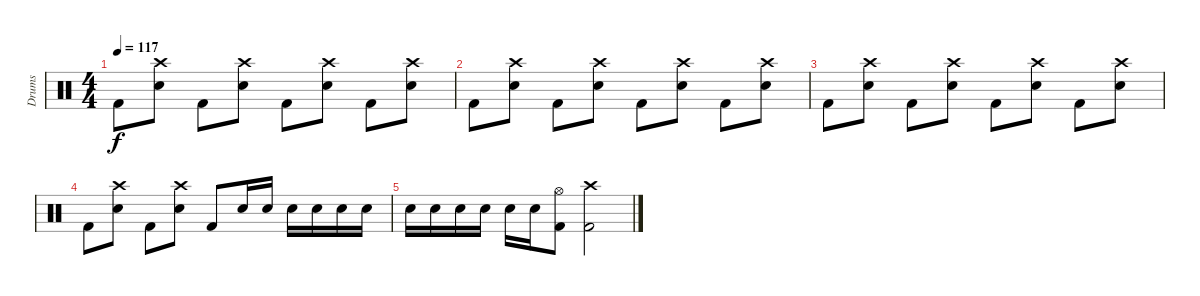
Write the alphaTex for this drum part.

\track ("Drums" "Drums") {instrument percussion}
\staff {score}
\articulation defaults
\ts (4 4)
\tempo 117
\clef neutral
\ks c "Kick (hit) 2".8{dy f}
("Crash high (hit)" "Electric Snare (hit)").8 "Kick (hit) 2".8 ("Crash high (hit)" "Electric Snare (hit)").8 "Kick (hit) 2".8 ("Crash high (hit)" "Electric Snare (hit)").8 "Kick (hit) 2".8 ("Crash high (hit)" "Electric Snare (hit)").8 |
"Kick (hit) 2".8 ("Crash high (hit)" "Electric Snare (hit)").8 "Kick (hit) 2".8 ("Crash high (hit)" "Electric Snare (hit)").8 "Kick (hit) 2".8 ("Crash high (hit)" "Electric Snare (hit)").8 "Kick (hit) 2".8 ("Crash high (hit)" "Electric Snare (hit)").8 |
"Kick (hit) 2".8 ("Crash high (hit)" "Electric Snare (hit)").8 "Kick (hit) 2".8 ("Crash high (hit)" "Electric Snare (hit)").8 "Kick (hit) 2".8 ("Crash high (hit)" "Electric Snare (hit)").8 "Kick (hit) 2".8 ("Crash high (hit)" "Electric Snare (hit)").8 |
"Kick (hit) 2".8 ("Crash high (hit)" "Electric Snare (hit)").8 "Kick (hit) 2".8 ("Crash high (hit)" "Electric Snare (hit)").8 "Kick (hit) 2".8 "Electric Snare (hit)".16 "Electric Snare (hit)".16 "Electric Snare (hit)".16 "Electric Snare (hit)".16 "Electric Snare (hit)".16 "Electric Snare (hit)".16 |
"Electric Snare (hit)".16 "Electric Snare (hit)".16 "Electric Snare (hit)".16 "Electric Snare (hit)".16 "Electric Snare (hit)".16 "Electric Snare (hit)".16 ("Hi-Hat (open)" "Kick (hit) 2").8 ("Crash high (hit)" "Kick (hit) 2").2
